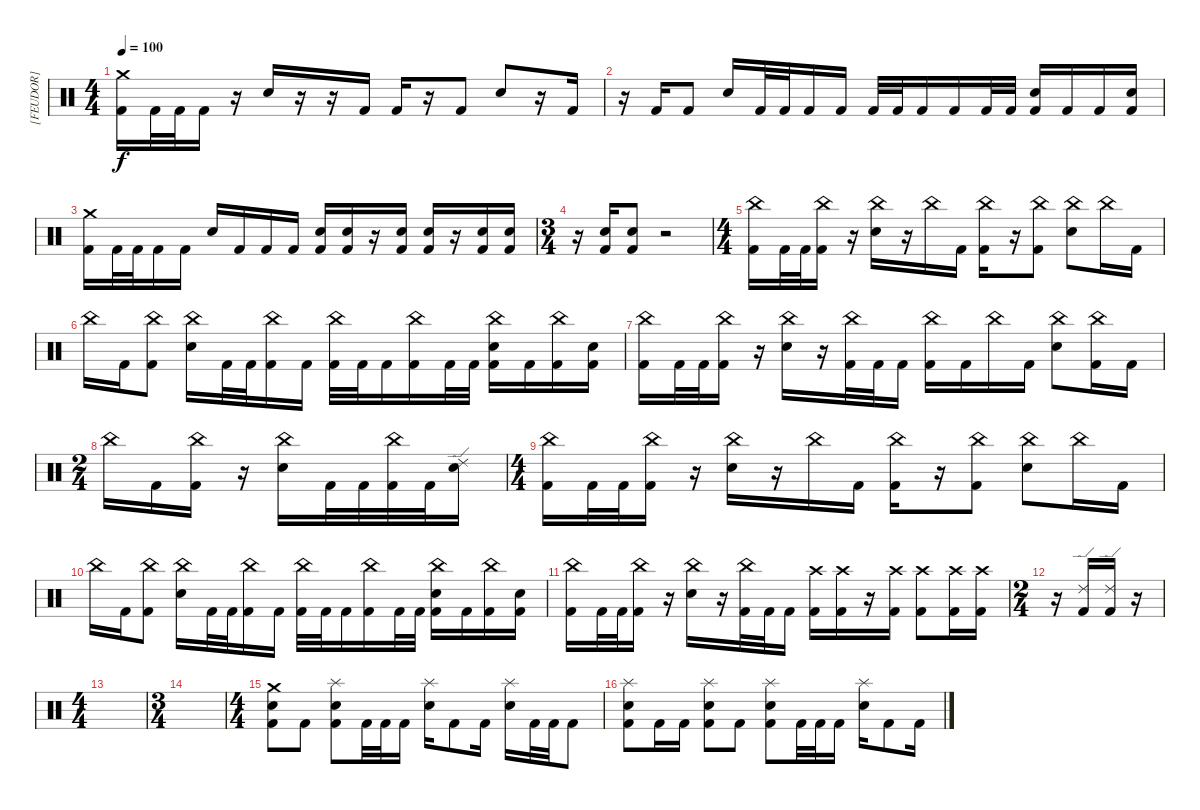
\track ("[FEUDOR]" "[FEUDOR]") {instrument percussion}
\staff {score}
\articulation defaults
\ts (4 4)
\tempo 100
\clef neutral
\ks c
("Crash medium (hit)" "Kick (hit) 2").16{dy f} "Kick (hit) 2".32 "Kick (hit) 2".32 "Kick (hit) 2".16 r.16 "Electric Snare (hit)".16 r.16 r.16 "Kick (hit) 2".16 "Kick (hit) 2".16 r.16 "Kick (hit) 2".8 "Electric Snare (hit)".8 r.16 "Kick (hit) 2".16 |
r.16 "Kick (hit) 2".16 "Kick (hit) 2".8 "Electric Snare (hit)".16 "Kick (hit) 2".32 "Kick (hit) 2".32 "Kick (hit) 2".16 "Kick (hit) 2".16 "Kick (hit) 2".32 "Kick (hit) 2".32 "Kick (hit) 2".16 "Kick (hit) 2".16 "Kick (hit) 2".32 "Kick (hit) 2".32 ("Electric Snare (hit)" "Kick (hit) 2").16 "Kick (hit) 2".16 "Kick (hit) 2".16 ("Electric Snare (hit)" "Kick (hit) 2").16 |
("Crash medium (hit)" "Kick (hit) 2").16 "Kick (hit) 2".32 "Kick (hit) 2".32 "Kick (hit) 2".16 "Kick (hit) 2".16 "Electric Snare (hit)".16 "Kick (hit) 2".16 "Kick (hit) 2".16 "Kick (hit) 2".16 ("Electric Snare (hit)" "Kick (hit) 2").16 ("Electric Snare (hit)" "Kick (hit) 2").16 r.16 ("Electric Snare (hit)" "Kick (hit) 2").16 ("Electric Snare (hit)" "Kick (hit) 2").16 r.16 ("Electric Snare (hit)" "Kick (hit) 2").16 ("Electric Snare (hit)" "Kick (hit) 2").16 |
\ts (3 4)
r.16 ("Electric Snare (hit)" "Kick (hit) 2").16 ("Electric Snare (hit)" "Kick (hit) 2").8 r.2 |
\ts (4 4)
("China (hit)" "Kick (hit) 2").16 "Kick (hit) 2".32 "Kick (hit) 2".32 ("China (hit)" "Kick (hit) 2").16 r.16 ("China (hit)" "Electric Snare (hit)").16 r.16 "China (hit)".16 "Kick (hit) 2".16 ("China (hit)" "Kick (hit) 2").16 r.16 ("China (hit)" "Kick (hit) 2").8 ("China (hit)" "Electric Snare (hit)").8 "China (hit)".16 "Kick (hit) 2".16 |
"China (hit)".16 "Kick (hit) 2".16 ("China (hit)" "Kick (hit) 2").8 ("China (hit)" "Electric Snare (hit)").16 "Kick (hit) 2".32 "Kick (hit) 2".32 ("China (hit)" "Kick (hit) 2").16 "Kick (hit) 2".16 ("China (hit)" "Kick (hit) 2").32 "Kick (hit) 2".32 "Kick (hit) 2".16 ("China (hit)" "Kick (hit) 2").16 "Kick (hit) 2".32 "Kick (hit) 2".32 ("China (hit)" "Electric Snare (hit)" "Kick (hit) 2").16 "Kick (hit) 2".16 ("China (hit)" "Kick (hit) 2").16 ("Electric Snare (hit)" "Kick (hit) 2").16 |
("China (hit)" "Kick (hit) 2").16 "Kick (hit) 2".32 "Kick (hit) 2".32 ("China (hit)" "Kick (hit) 2").16 r.16 ("China (hit)" "Electric Snare (hit)").16 r.16 ("China (hit)" "Kick (hit) 2").32 "Kick (hit) 2".32 "Kick (hit) 2".16 ("China (hit)" "Kick (hit) 2").16 "Kick (hit) 2".16 "China (hit)".16 "Kick (hit) 2".16 ("China (hit)" "Electric Snare (hit)").8 ("China (hit)" "Kick (hit) 2").16 "Kick (hit) 2".16 |
\ts (2 4)
"China (hit)".16 "Kick (hit) 2".16 ("China (hit)" "Kick (hit) 2").16 r.16 ("China (hit)" "Electric Snare (hit)").16 "Kick (hit) 2".32 "Kick (hit) 2".32 ("China (hit)" "Kick (hit) 2").32 "Kick (hit) 2".32 ("Ride (edge) 2" "Electric Snare (hit)").16 |
\ts (4 4)
("China (hit)" "Kick (hit) 2").16 "Kick (hit) 2".32 "Kick (hit) 2".32 ("China (hit)" "Kick (hit) 2").16 r.16 ("China (hit)" "Electric Snare (hit)").16 r.16 "China (hit)".16 "Kick (hit) 2".16 ("China (hit)" "Kick (hit) 2").16 r.16 ("China (hit)" "Kick (hit) 2").8 ("China (hit)" "Electric Snare (hit)").8 "China (hit)".16 "Kick (hit) 2".16 |
"China (hit)".16 "Kick (hit) 2".16 ("China (hit)" "Kick (hit) 2").8 ("China (hit)" "Electric Snare (hit)").16 "Kick (hit) 2".32 "Kick (hit) 2".32 ("China (hit)" "Kick (hit) 2").16 "Kick (hit) 2".16 ("China (hit)" "Kick (hit) 2").32 "Kick (hit) 2".32 "Kick (hit) 2".16 ("China (hit)" "Kick (hit) 2").16 "Kick (hit) 2".32 "Kick (hit) 2".32 ("China (hit)" "Electric Snare (hit)" "Kick (hit) 2").16 "Kick (hit) 2".16 ("China (hit)" "Kick (hit) 2").16 ("Electric Snare (hit)" "Kick (hit) 2").16 |
("China (hit)" "Kick (hit) 2").16 "Kick (hit) 2".32 "Kick (hit) 2".32 ("China (hit)" "Kick (hit) 2").16 r.16 ("China (hit)" "Electric Snare (hit)").16 r.16 ("China (hit)" "Kick (hit) 2").32 "Kick (hit) 2".32 "Kick (hit) 2".16 ("Crash high (hit)" "Kick (hit) 2").16 ("Crash high (hit)" "Kick (hit) 2").16 r.16 ("Crash high (hit)" "Kick (hit) 2").16 ("Crash high (hit)" "Kick (hit) 2").8 ("Crash high (hit)" "Kick (hit) 2").16 ("Crash high (hit)" "Kick (hit) 2").16 |
\ts (2 4)
r.16 ("Ride (edge) 2" "Kick (hit) 2").16 ("Ride (edge) 2" "Kick (hit) 2").16 r.16 |
\ts (4 4)
|
\ts (3 4)
|
\ts (4 4)
("Crash medium (hit)" "Electric Snare (hit)" "Kick (hit) 2").8 "Kick (hit) 2".8 ("Splash (hit)" "Electric Snare (hit)" "Kick (hit) 2").8 "Kick (hit) 2".32 "Kick (hit) 2".32 "Kick (hit) 2".16 ("Splash (hit)" "Electric Snare (hit)").16 "Kick (hit) 2".8 "Kick (hit) 2".16 ("Splash (hit)" "Electric Snare (hit)").16 "Kick (hit) 2".32 "Kick (hit) 2".32 "Kick (hit) 2".8 |
("Splash (hit)" "Electric Snare (hit)" "Kick (hit) 2").8 "Kick (hit) 2".16 "Kick (hit) 2".16 ("Splash (hit)" "Electric Snare (hit)" "Kick (hit) 2").8 "Kick (hit) 2".8 ("Splash (hit)" "Electric Snare (hit)" "Kick (hit) 2").8 "Kick (hit) 2".32 "Kick (hit) 2".32 "Kick (hit) 2".16 ("Splash (hit)" "Electric Snare (hit)").16 "Kick (hit) 2".8 "Kick (hit) 2".16
